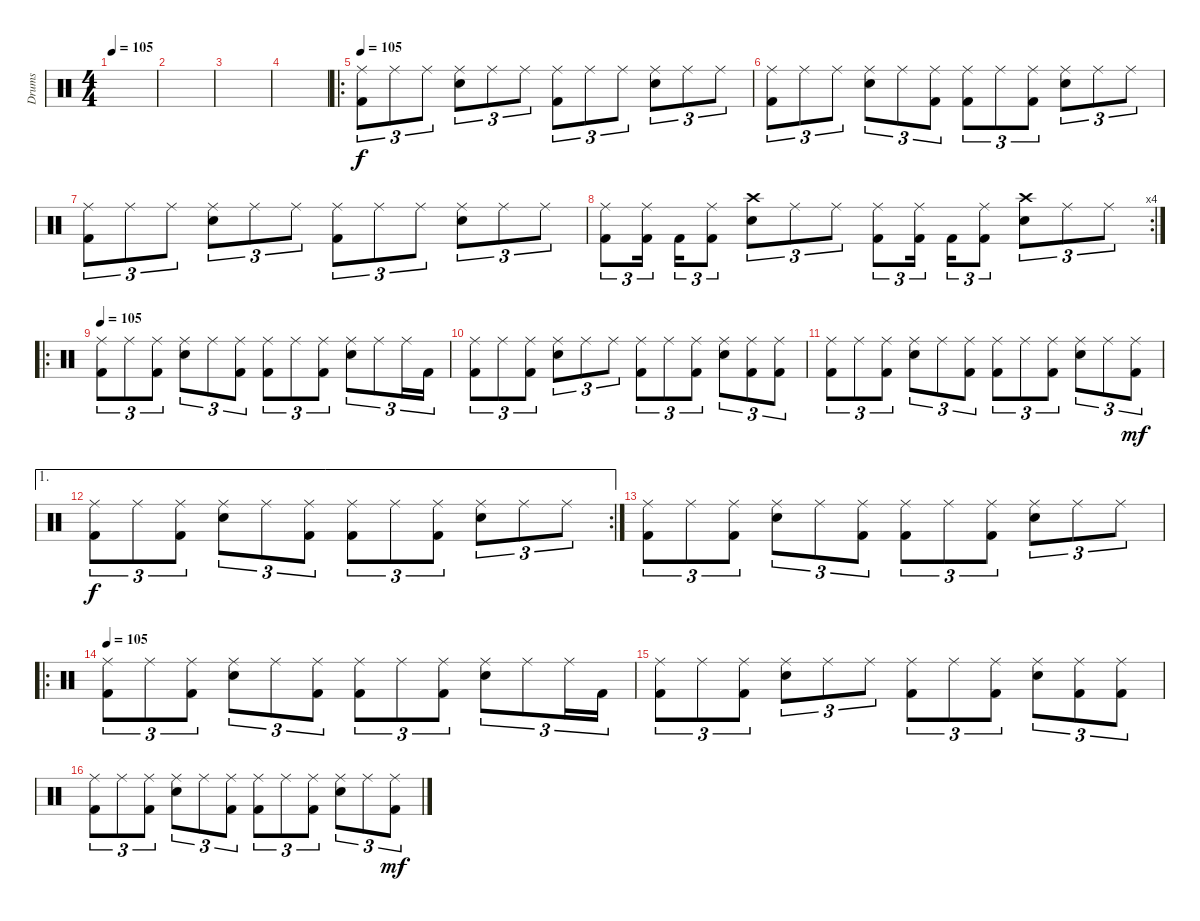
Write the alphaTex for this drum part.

\track ("Drums" "Drums") {instrument percussion}
\staff {score}
\articulation defaults
\ts (4 4)
\tempo 105
\clef neutral
\ks c
|
|
|
|
\ro
\tempo 105
("Ride (middle)" "Kick (hit) 2").8{tu (3 2)} "Ride (middle)".8{tu (3 2)} "Ride (middle)".8{tu (3 2)} ("Ride (middle)" "Electric Snare (hit)").8{tu (3 2)} "Ride (middle)".8{tu (3 2)} "Ride (middle)".8{tu (3 2)} ("Ride (middle)" "Kick (hit) 2").8{tu (3 2)} "Ride (middle)".8{tu (3 2)} "Ride (middle)".8{tu (3 2)} ("Ride (middle)" "Electric Snare (hit)").8{tu (3 2)} "Ride (middle)".8{tu (3 2)} "Ride (middle)".8{tu (3 2)} |
("Ride (middle)" "Kick (hit) 2").8{tu (3 2)} "Ride (middle)".8{tu (3 2)} "Ride (middle)".8{tu (3 2)} ("Ride (middle)" "Electric Snare (hit)").8{tu (3 2)} "Ride (middle)".8{tu (3 2)} ("Ride (middle)" "Kick (hit) 2").8{tu (3 2)} ("Ride (middle)" "Kick (hit) 2").8{tu (3 2)} "Ride (middle)".8{tu (3 2)} ("Ride (middle)" "Kick (hit) 2").8{tu (3 2)} ("Ride (middle)" "Electric Snare (hit)").8{tu (3 2)} "Ride (middle)".8{tu (3 2)} "Ride (middle)".8{tu (3 2)} |
("Ride (middle)" "Kick (hit) 2").8{tu (3 2)} "Ride (middle)".8{tu (3 2)} "Ride (middle)".8{tu (3 2)} ("Ride (middle)" "Electric Snare (hit)").8{tu (3 2)} "Ride (middle)".8{tu (3 2)} "Ride (middle)".8{tu (3 2)} ("Ride (middle)" "Kick (hit) 2").8{tu (3 2)} "Ride (middle)".8{tu (3 2)} "Ride (middle)".8{tu (3 2)} ("Ride (middle)" "Electric Snare (hit)").8{tu (3 2)} "Ride (middle)".8{tu (3 2)} "Ride (middle)".8{tu (3 2)} |
\rc 4
("Ride (middle)" "Kick (hit) 2").8{tu (3 2)} ("Ride (middle)" "Kick (hit) 2").16{tu (3 2)} "Kick (hit) 2".16{tu (3 2)} ("Ride (middle)" "Kick (hit) 2").8{tu (3 2)} ("Crash high (hit)" "Electric Snare (hit)").8{tu (3 2)} "Ride (middle)".8{tu (3 2)} "Ride (middle)".8{tu (3 2)} ("Ride (middle)" "Kick (hit) 2").8{tu (3 2)} ("Ride (middle)" "Kick (hit) 2").16{tu (3 2)} "Kick (hit) 2".16{tu (3 2)} ("Ride (middle)" "Kick (hit) 2").8{tu (3 2)} ("Crash high (hit)" "Electric Snare (hit)").8{tu (3 2)} "Ride (middle)".8{tu (3 2)} "Ride (middle)".8{tu (3 2)} |
\ro
\tempo 105
("Ride (middle)" "Kick (hit) 2").8{tu (3 2)} "Ride (middle)".8{tu (3 2)} ("Ride (middle)" "Kick (hit) 2").8{tu (3 2)} ("Ride (middle)" "Electric Snare (hit)").8{tu (3 2)} "Ride (middle)".8{tu (3 2)} ("Ride (middle)" "Kick (hit) 2").8{tu (3 2)} ("Ride (middle)" "Kick (hit) 2").8{tu (3 2)} "Ride (middle)".8{tu (3 2)} ("Ride (middle)" "Kick (hit) 2").8{tu (3 2)} ("Ride (middle)" "Electric Snare (hit)").8{tu (3 2)} "Ride (middle)".8{tu (3 2)} "Ride (middle)".16{tu (3 2)} "Kick (hit) 2".16{tu (3 2)} |
("Ride (middle)" "Kick (hit) 2").8{tu (3 2)} "Ride (middle)".8{tu (3 2)} ("Ride (middle)" "Kick (hit) 2").8{tu (3 2)} ("Ride (middle)" "Electric Snare (hit)").8{tu (3 2)} "Ride (middle)".8{tu (3 2)} "Ride (middle)".8{tu (3 2)} ("Ride (middle)" "Kick (hit) 2").8{tu (3 2)} "Ride (middle)".8{tu (3 2)} ("Ride (middle)" "Kick (hit) 2").8{tu (3 2)} ("Ride (middle)" "Electric Snare (hit)").8{tu (3 2)} ("Ride (middle)" "Kick (hit) 2").8{tu (3 2)} ("Ride (middle)" "Kick (hit) 2").8{tu (3 2)} |
("Ride (middle)" "Kick (hit) 2").8{tu (3 2)} "Ride (middle)".8{tu (3 2)} ("Ride (middle)" "Kick (hit) 2").8{tu (3 2)} ("Ride (middle)" "Electric Snare (hit)").8{tu (3 2)} "Ride (middle)".8{tu (3 2)} ("Ride (middle)" "Kick (hit) 2").8{tu (3 2)} ("Ride (middle)" "Kick (hit) 2").8{tu (3 2)} "Ride (middle)".8{tu (3 2)} ("Ride (middle)" "Kick (hit) 2").8{tu (3 2)} ("Ride (middle)" "Electric Snare (hit)").8{tu (3 2)} "Ride (middle)".8{tu (3 2)} ("Ride (middle)" "Kick (hit) 2").8{tu (3 2) dy mf} |
\ae 1
\rc 2
("Ride (middle)" "Kick (hit) 2").8{tu (3 2) dy f} "Ride (middle)".8{tu (3 2)} ("Ride (middle)" "Kick (hit) 2").8{tu (3 2)} ("Ride (middle)" "Electric Snare (hit)").8{tu (3 2)} "Ride (middle)".8{tu (3 2)} ("Ride (middle)" "Kick (hit) 2").8{tu (3 2)} ("Ride (middle)" "Kick (hit) 2").8{tu (3 2)} "Ride (middle)".8{tu (3 2)} ("Ride (middle)" "Kick (hit) 2").8{tu (3 2)} ("Ride (middle)" "Electric Snare (hit)").8{tu (3 2)} "Ride (middle)".8{tu (3 2)} "Ride (middle)".8{tu (3 2)} |
("Ride (middle)" "Kick (hit) 2").8{tu (3 2)} "Ride (middle)".8{tu (3 2)} ("Ride (middle)" "Kick (hit) 2").8{tu (3 2)} ("Ride (middle)" "Electric Snare (hit)").8{tu (3 2)} "Ride (middle)".8{tu (3 2)} ("Ride (middle)" "Kick (hit) 2").8{tu (3 2)} ("Ride (middle)" "Kick (hit) 2").8{tu (3 2)} "Ride (middle)".8{tu (3 2)} ("Ride (middle)" "Kick (hit) 2").8{tu (3 2)} ("Ride (middle)" "Electric Snare (hit)").8{tu (3 2)} "Ride (middle)".8{tu (3 2)} "Ride (middle)".8{tu (3 2)} |
\ro
\tempo 105
("Ride (middle)" "Kick (hit) 2").8{tu (3 2)} "Ride (middle)".8{tu (3 2)} ("Ride (middle)" "Kick (hit) 2").8{tu (3 2)} ("Ride (middle)" "Electric Snare (hit)").8{tu (3 2)} "Ride (middle)".8{tu (3 2)} ("Ride (middle)" "Kick (hit) 2").8{tu (3 2)} ("Ride (middle)" "Kick (hit) 2").8{tu (3 2)} "Ride (middle)".8{tu (3 2)} ("Ride (middle)" "Kick (hit) 2").8{tu (3 2)} ("Ride (middle)" "Electric Snare (hit)").8{tu (3 2)} "Ride (middle)".8{tu (3 2)} "Ride (middle)".16{tu (3 2)} "Kick (hit) 2".16{tu (3 2)} |
("Ride (middle)" "Kick (hit) 2").8{tu (3 2)} "Ride (middle)".8{tu (3 2)} ("Ride (middle)" "Kick (hit) 2").8{tu (3 2)} ("Ride (middle)" "Electric Snare (hit)").8{tu (3 2)} "Ride (middle)".8{tu (3 2)} "Ride (middle)".8{tu (3 2)} ("Ride (middle)" "Kick (hit) 2").8{tu (3 2)} "Ride (middle)".8{tu (3 2)} ("Ride (middle)" "Kick (hit) 2").8{tu (3 2)} ("Ride (middle)" "Electric Snare (hit)").8{tu (3 2)} ("Ride (middle)" "Kick (hit) 2").8{tu (3 2)} ("Ride (middle)" "Kick (hit) 2").8{tu (3 2)} |
("Ride (middle)" "Kick (hit) 2").8{tu (3 2)} "Ride (middle)".8{tu (3 2)} ("Ride (middle)" "Kick (hit) 2").8{tu (3 2)} ("Ride (middle)" "Electric Snare (hit)").8{tu (3 2)} "Ride (middle)".8{tu (3 2)} ("Ride (middle)" "Kick (hit) 2").8{tu (3 2)} ("Ride (middle)" "Kick (hit) 2").8{tu (3 2)} "Ride (middle)".8{tu (3 2)} ("Ride (middle)" "Kick (hit) 2").8{tu (3 2)} ("Ride (middle)" "Electric Snare (hit)").8{tu (3 2)} "Ride (middle)".8{tu (3 2)} ("Ride (middle)" "Kick (hit) 2").8{tu (3 2) dy mf}
